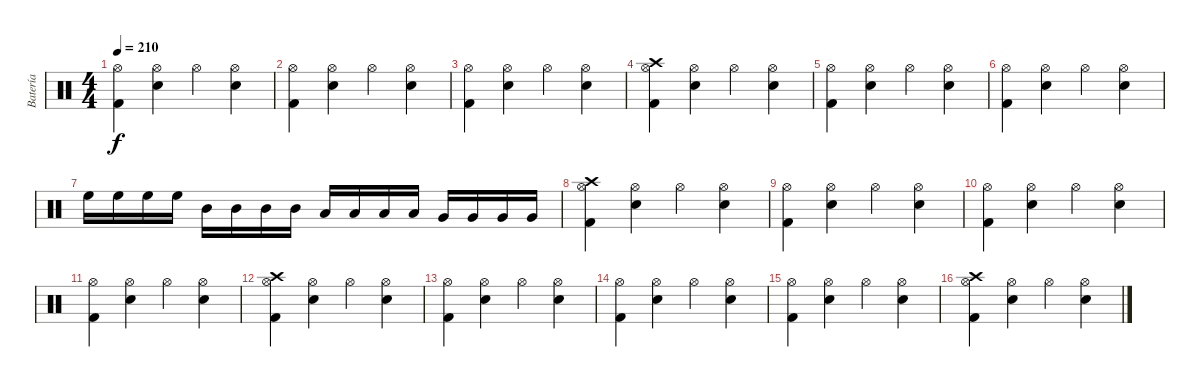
\track ("Batería" "Batería") {instrument percussion}
\staff {score}
\articulation defaults
\ts (4 4)
\tempo 210
\clef neutral
\ks c
("Hi-Hat (open)" "Kick (hit) 2").4{dy f} ("Hi-Hat (open)" "Electric Snare (hit)").4 "Hi-Hat (open)".4 ("Hi-Hat (open)" "Electric Snare (hit)").4 |
("Hi-Hat (open)" "Kick (hit) 2").4 ("Hi-Hat (open)" "Electric Snare (hit)").4 "Hi-Hat (open)".4 ("Hi-Hat (open)" "Electric Snare (hit)").4 |
("Hi-Hat (open)" "Kick (hit) 2").4 ("Hi-Hat (open)" "Electric Snare (hit)").4 "Hi-Hat (open)".4 ("Hi-Hat (open)" "Electric Snare (hit)").4 |
("Hi-Hat (open)" "Kick (hit) 2" "Crash high (hit)").4 ("Hi-Hat (open)" "Electric Snare (hit)").4 "Hi-Hat (open)".4 ("Hi-Hat (open)" "Electric Snare (hit)").4 |
("Hi-Hat (open)" "Kick (hit) 2").4 ("Hi-Hat (open)" "Electric Snare (hit)").4 "Hi-Hat (open)".4 ("Hi-Hat (open)" "Electric Snare (hit)").4 |
("Hi-Hat (open)" "Kick (hit) 2").4 ("Hi-Hat (open)" "Electric Snare (hit)").4 "Hi-Hat (open)".4 ("Hi-Hat (open)" "Electric Snare (hit)").4 |
"High Floor Tom (hit)".16 "High Floor Tom (hit)".16 "High Floor Tom (hit)".16 "High Floor Tom (hit)".16 "Mid Tom (hit)".16 "Mid Tom (hit)".16 "Mid Tom (hit)".16 "Mid Tom (hit)".16 "Low Tom (hit)".16 "Low Tom (hit)".16 "Low Tom (hit)".16 "Low Tom (hit)".16 "Very Low Tom (hit)".16 "Very Low Tom (hit)".16 "Very Low Tom (hit)".16 "Very Low Tom (hit)".16 |
("Hi-Hat (open)" "Kick (hit) 2" "Crash high (hit)").4 ("Hi-Hat (open)" "Electric Snare (hit)").4 "Hi-Hat (open)".4 ("Hi-Hat (open)" "Electric Snare (hit)").4 |
("Hi-Hat (open)" "Kick (hit) 2").4 ("Hi-Hat (open)" "Electric Snare (hit)").4 "Hi-Hat (open)".4 ("Hi-Hat (open)" "Electric Snare (hit)").4 |
("Hi-Hat (open)" "Kick (hit) 2").4 ("Hi-Hat (open)" "Electric Snare (hit)").4 "Hi-Hat (open)".4 ("Hi-Hat (open)" "Electric Snare (hit)").4 |
("Hi-Hat (open)" "Kick (hit) 2").4 ("Hi-Hat (open)" "Electric Snare (hit)").4 "Hi-Hat (open)".4 ("Hi-Hat (open)" "Electric Snare (hit)").4 |
("Hi-Hat (open)" "Kick (hit) 2" "Crash high (hit)").4 ("Hi-Hat (open)" "Electric Snare (hit)").4 "Hi-Hat (open)".4 ("Hi-Hat (open)" "Electric Snare (hit)").4 |
("Hi-Hat (open)" "Kick (hit) 2").4 ("Hi-Hat (open)" "Electric Snare (hit)").4 "Hi-Hat (open)".4 ("Hi-Hat (open)" "Electric Snare (hit)").4 |
("Hi-Hat (open)" "Kick (hit) 2").4 ("Hi-Hat (open)" "Electric Snare (hit)").4 "Hi-Hat (open)".4 ("Hi-Hat (open)" "Electric Snare (hit)").4 |
("Hi-Hat (open)" "Kick (hit) 2").4 ("Hi-Hat (open)" "Electric Snare (hit)").4 "Hi-Hat (open)".4 ("Hi-Hat (open)" "Electric Snare (hit)").4 |
("Hi-Hat (open)" "Kick (hit) 2" "Crash high (hit)").4 ("Hi-Hat (open)" "Electric Snare (hit)").4 "Hi-Hat (open)".4 ("Hi-Hat (open)" "Electric Snare (hit)").4
